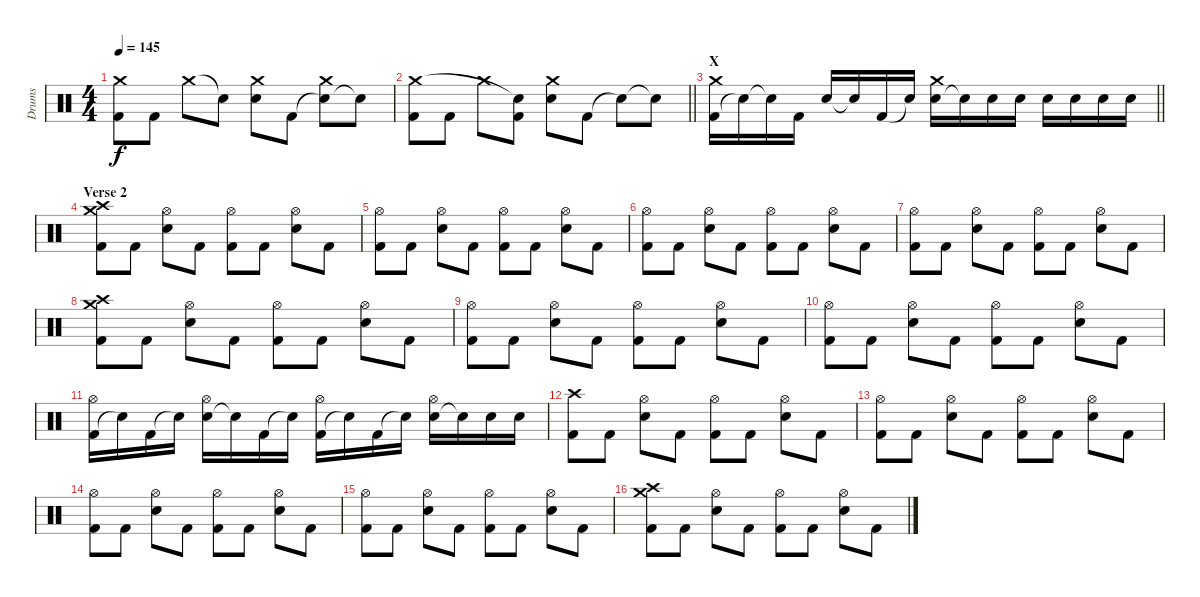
\track ("Drums" "Drums") {instrument percussion}
\staff {score}
\articulation defaults
\ts (4 4)
\tempo 145
\clef neutral
\ks c
("Kick (hit) 2" "Crash medium (hit)").8{dy f} "Kick (hit) 2".8 "Crash medium (hit)".8 "Snare (hit)"{t}.8 ("Electric Snare (hit)" "Crash medium (hit)").8 "Kick (hit) 2".8 ("Snare (hit)"{t} "Crash medium (hit)").8 "Snare (hit)"{t}.8 |
\barLineRight lightlight
("Kick (hit) 2" "Crash medium (hit)").8 "Kick (hit) 2".8 "Crash medium (hit)".8 ("Kick (hit) 2" "Snare (hit)"{t}).8 ("Electric Snare (hit)" "Crash medium (hit)").8 "Kick (hit) 2".8 "Snare (hit)"{t}.8 "Snare (hit)"{t}.8 |
\section ("" "X")
\barLineRight lightlight
("Kick (hit) 2" "Crash medium (hit)").16 "Snare (hit)"{t}.16 "Snare (hit)"{t}.16 "Kick (hit) 2".16 "Electric Snare (hit)".16 "Electric Snare (hit)"{t}.16 "Kick (hit) 2".16 "Snare (hit)"{t}.16 ("Electric Snare (hit)" "Crash medium (hit)").16 "Snare (hit)"{t}.16 "Electric Snare (hit)".16 "Electric Snare (hit)".16 "Electric Snare (hit)".16 "Electric Snare (hit)".16 "Electric Snare (hit)".16 "Electric Snare (hit)".16 |
\section ("" "Verse 2")
("Kick (hit) 2" "Crash medium (hit)" "Crash high (hit)").8 "Kick (hit) 2".8 ("Electric Snare (hit)" "Hi-Hat (open)").8 "Kick (hit) 2".8 ("Kick (hit) 2" "Hi-Hat (open)").8 "Kick (hit) 2".8 ("Electric Snare (hit)" "Hi-Hat (open)").8 "Kick (hit) 2".8 |
("Kick (hit) 2" "Hi-Hat (open)").8 "Kick (hit) 2".8 ("Electric Snare (hit)" "Hi-Hat (open)").8 "Kick (hit) 2".8 ("Kick (hit) 2" "Hi-Hat (open)").8 "Kick (hit) 2".8 ("Electric Snare (hit)" "Hi-Hat (open)").8 "Kick (hit) 2".8 |
("Kick (hit) 2" "Hi-Hat (open)").8 "Kick (hit) 2".8 ("Electric Snare (hit)" "Hi-Hat (open)").8 "Kick (hit) 2".8 ("Kick (hit) 2" "Hi-Hat (open)").8 "Kick (hit) 2".8 ("Electric Snare (hit)" "Hi-Hat (open)").8 "Kick (hit) 2".8 |
("Kick (hit) 2" "Hi-Hat (open)").8 "Kick (hit) 2".8 ("Electric Snare (hit)" "Hi-Hat (open)").8 "Kick (hit) 2".8 ("Kick (hit) 2" "Hi-Hat (open)").8 "Kick (hit) 2".8 ("Electric Snare (hit)" "Hi-Hat (open)").8 "Kick (hit) 2".8 |
("Kick (hit) 2" "Crash medium (hit)" "Crash high (hit)").8 "Kick (hit) 2".8 ("Electric Snare (hit)" "Hi-Hat (open)").8 "Kick (hit) 2".8 ("Kick (hit) 2" "Hi-Hat (open)").8 "Kick (hit) 2".8 ("Electric Snare (hit)" "Hi-Hat (open)").8 "Kick (hit) 2".8 |
("Kick (hit) 2" "Hi-Hat (open)").8 "Kick (hit) 2".8 ("Electric Snare (hit)" "Hi-Hat (open)").8 "Kick (hit) 2".8 ("Kick (hit) 2" "Hi-Hat (open)").8 "Kick (hit) 2".8 ("Electric Snare (hit)" "Hi-Hat (open)").8 "Kick (hit) 2".8 |
("Kick (hit) 2" "Hi-Hat (open)").8 "Kick (hit) 2".8 ("Electric Snare (hit)" "Hi-Hat (open)").8 "Kick (hit) 2".8 ("Kick (hit) 2" "Hi-Hat (open)").8 "Kick (hit) 2".8 ("Electric Snare (hit)" "Hi-Hat (open)").8 "Kick (hit) 2".8 |
("Kick (hit) 2" "Hi-Hat (open)").16 "Snare (hit)"{t}.16 "Kick (hit) 2".16 "Snare (hit)"{t}.16 ("Electric Snare (hit)" "Hi-Hat (open)").16 "Snare (hit)"{t}.16 "Kick (hit) 2".16 "Snare (hit)"{t}.16 ("Kick (hit) 2" "Hi-Hat (open)").16 "Snare (hit)"{t}.16 "Kick (hit) 2".16 "Snare (hit)"{t}.16 ("Electric Snare (hit)" "Hi-Hat (open)").16 "Snare (hit)"{t}.16 "Electric Snare (hit)".16 "Electric Snare (hit)".16 |
("Kick (hit) 2" "Crash high (hit)").8 "Kick (hit) 2".8 ("Electric Snare (hit)" "Hi-Hat (open)").8 "Kick (hit) 2".8 ("Kick (hit) 2" "Hi-Hat (open)").8 "Kick (hit) 2".8 ("Electric Snare (hit)" "Hi-Hat (open)").8 "Kick (hit) 2".8 |
("Kick (hit) 2" "Hi-Hat (open)").8 "Kick (hit) 2".8 ("Electric Snare (hit)" "Hi-Hat (open)").8 "Kick (hit) 2".8 ("Kick (hit) 2" "Hi-Hat (open)").8 "Kick (hit) 2".8 ("Electric Snare (hit)" "Hi-Hat (open)").8 "Kick (hit) 2".8 |
("Kick (hit) 2" "Hi-Hat (open)").8 "Kick (hit) 2".8 ("Electric Snare (hit)" "Hi-Hat (open)").8 "Kick (hit) 2".8 ("Kick (hit) 2" "Hi-Hat (open)").8 "Kick (hit) 2".8 ("Electric Snare (hit)" "Hi-Hat (open)").8 "Kick (hit) 2".8 |
("Kick (hit) 2" "Hi-Hat (open)").8 "Kick (hit) 2".8 ("Electric Snare (hit)" "Hi-Hat (open)").8 "Kick (hit) 2".8 ("Kick (hit) 2" "Hi-Hat (open)").8 "Kick (hit) 2".8 ("Electric Snare (hit)" "Hi-Hat (open)").8 "Kick (hit) 2".8 |
("Kick (hit) 2" "Crash medium (hit)" "Crash high (hit)").8 "Kick (hit) 2".8 ("Electric Snare (hit)" "Hi-Hat (open)").8 "Kick (hit) 2".8 ("Kick (hit) 2" "Hi-Hat (open)").8 "Kick (hit) 2".8 ("Electric Snare (hit)" "Hi-Hat (open)").8 "Kick (hit) 2".8
